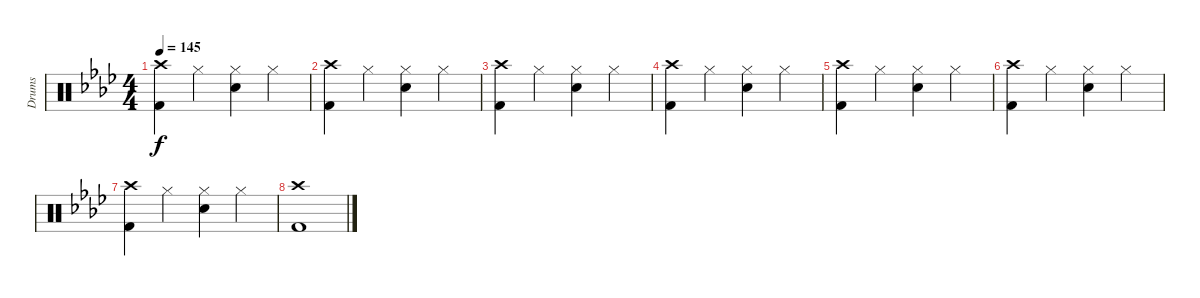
\track ("Drums" "Drums") {instrument percussion}
\staff {score}
\articulation defaults
\ts (4 4)
\tempo 145
\clef neutral
\ks ab
("Crash high (hit)" "Kick (hit) 2").4{dy f} "Hi-Hat (closed)".4 ("Hi-Hat (closed)" "Electric Snare (hit)").4 "Hi-Hat (closed)".4 |
("Crash high (hit)" "Kick (hit) 2").4 "Hi-Hat (closed)".4 ("Hi-Hat (closed)" "Electric Snare (hit)").4 "Hi-Hat (closed)".4 |
("Crash high (hit)" "Kick (hit) 2").4 "Hi-Hat (closed)".4 ("Hi-Hat (closed)" "Electric Snare (hit)").4 "Hi-Hat (closed)".4 |
("Crash high (hit)" "Kick (hit) 2").4 "Hi-Hat (closed)".4 ("Hi-Hat (closed)" "Electric Snare (hit)").4 "Hi-Hat (closed)".4 |
("Crash high (hit)" "Kick (hit) 2").4 "Hi-Hat (closed)".4 ("Hi-Hat (closed)" "Electric Snare (hit)").4 "Hi-Hat (closed)".4 |
("Crash high (hit)" "Kick (hit) 2").4 "Hi-Hat (closed)".4 ("Hi-Hat (closed)" "Electric Snare (hit)").4 "Hi-Hat (closed)".4 |
("Crash high (hit)" "Kick (hit) 2").4 "Hi-Hat (closed)".4 ("Hi-Hat (closed)" "Electric Snare (hit)").4 "Hi-Hat (closed)".4 |
("Crash high (hit)" "Kick (hit) 2").1
